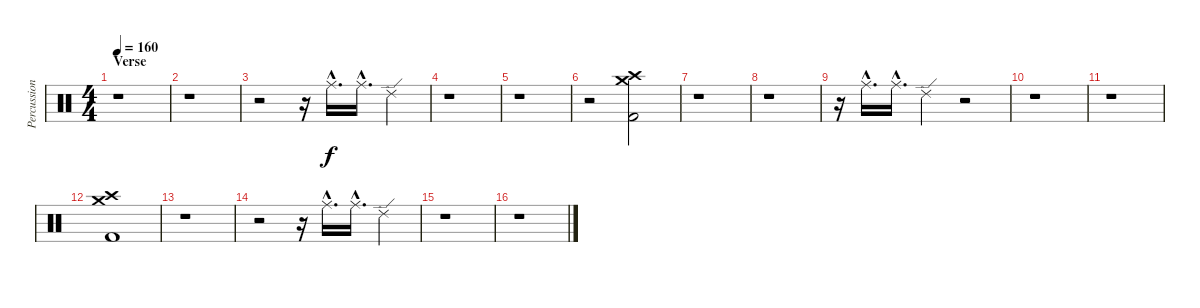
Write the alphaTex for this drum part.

\track ("Percussion" "Percussion") {instrument percussion}
\staff {score}
\articulation defaults
\ts (4 4)
\section ("" "Verse")
\tempo 160
\clef neutral
\ks c
r.1{dy f} |
r.1 |
r.2 r.16 "Ride (middle)"{hac}.16{d} "Ride (middle)"{hac}.16{d} "Ride (edge) 2".4 |
r.1 |
r.1 |
r.2 ("Crash medium (hit)" "Crash high (hit)" "Kick (hit) 2").2 |
r.1 |
r.1 |
r.16 "Ride (middle)"{hac}.16{d} "Ride (middle)"{hac}.16{d} "Ride (edge) 2".4 r.2 |
r.1 |
r.1 |
("Crash medium (hit)" "Crash high (hit)" "Kick (hit) 2").1 |
r.1 |
r.2 r.16 "Ride (middle)"{hac}.16{d} "Ride (middle)"{hac}.16{d} "Ride (edge) 2".4 |
r.1 |
r.1
